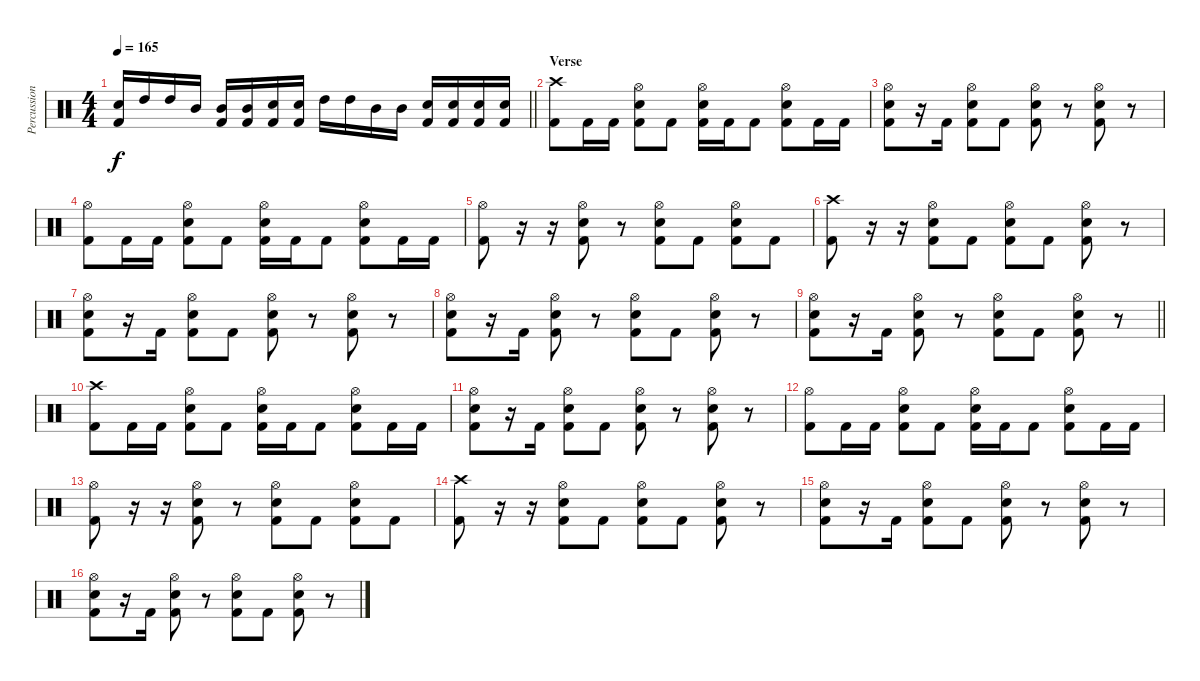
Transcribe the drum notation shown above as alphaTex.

\track ("Percussion" "Percussion") {instrument percussion}
\staff {score}
\articulation defaults
\ts (4 4)
\tempo 165
\clef neutral
\barLineRight lightlight
\ks c
("Snare (hit) 2" "Kick (hit) 2").16{dy f} "High Tom (hit)".16 "High Tom (hit)".16 "Mid Tom (hit)".16 ("Mid Tom (hit)" "Kick (hit) 2").16 ("Mid Tom (hit)" "Kick (hit) 2").16 ("Snare (hit) 2" "Kick (hit) 2").16 ("Snare (hit) 2" "Kick (hit) 2").16 "High Tom (hit)".16 "High Tom (hit)".16 "Mid Tom (hit)".16 "Mid Tom (hit)".16 ("Snare (hit) 2" "Kick (hit) 2").16 ("Snare (hit) 2" "Kick (hit) 2").16 ("Snare (hit) 2" "Kick (hit) 2").16 ("Snare (hit) 2" "Kick (hit) 2").16 |
\section ("" "Verse")
("Kick (hit) 2" "Crash high (hit)").8 "Kick (hit) 2".16 "Kick (hit) 2".16 ("Hi-Hat (open)" "Kick (hit) 2" "Snare (hit) 2").8 "Kick (hit) 2".8 ("Hi-Hat (open)" "Kick (hit) 2" "Snare (hit) 2").16 "Kick (hit) 2".16 "Kick (hit) 2".8 ("Hi-Hat (open)" "Kick (hit) 2" "Snare (hit) 2").8 "Kick (hit) 2".16 "Kick (hit) 2".16 |
("Hi-Hat (open)" "Kick (hit) 2" "Snare (hit) 2").8 r.16 "Kick (hit) 2".16 ("Hi-Hat (open)" "Kick (hit) 2" "Snare (hit) 2").8 "Kick (hit) 2".8 ("Hi-Hat (open)" "Kick (hit) 2" "Snare (hit) 2").8 r.8 ("Hi-Hat (open)" "Kick (hit) 2" "Snare (hit) 2").8 r.8 |
("Kick (hit) 2" "Hi-Hat (open)").8 "Kick (hit) 2".16 "Kick (hit) 2".16 ("Hi-Hat (open)" "Kick (hit) 2" "Snare (hit) 2").8 "Kick (hit) 2".8 ("Hi-Hat (open)" "Kick (hit) 2" "Snare (hit) 2").16 "Kick (hit) 2".16 "Kick (hit) 2".8 ("Hi-Hat (open)" "Kick (hit) 2" "Snare (hit) 2").8 "Kick (hit) 2".16 "Kick (hit) 2".16 |
("Kick (hit) 2" "Hi-Hat (open)").8 r.16 r.16 ("Hi-Hat (open)" "Kick (hit) 2" "Snare (hit) 2").8 r.8 ("Hi-Hat (open)" "Kick (hit) 2" "Snare (hit) 2").8 "Kick (hit) 2".8 ("Hi-Hat (open)" "Kick (hit) 2" "Snare (hit) 2").8 "Kick (hit) 2".8 |
("Kick (hit) 2" "Crash high (hit)").8 r.16 r.16 ("Hi-Hat (open)" "Kick (hit) 2" "Snare (hit) 2").8 "Kick (hit) 2".8 ("Hi-Hat (open)" "Kick (hit) 2" "Snare (hit) 2").8 "Kick (hit) 2".8 ("Hi-Hat (open)" "Kick (hit) 2" "Snare (hit) 2").8 r.8 |
("Hi-Hat (open)" "Kick (hit) 2" "Snare (hit) 2").8 r.16 "Kick (hit) 2".16 ("Hi-Hat (open)" "Kick (hit) 2" "Snare (hit) 2").8 "Kick (hit) 2".8 ("Hi-Hat (open)" "Kick (hit) 2" "Snare (hit) 2").8 r.8 ("Hi-Hat (open)" "Kick (hit) 2" "Snare (hit) 2").8 r.8 |
("Hi-Hat (open)" "Kick (hit) 2" "Snare (hit) 2").8 r.16 "Kick (hit) 2".16 ("Hi-Hat (open)" "Kick (hit) 2" "Snare (hit) 2").8 r.8 ("Hi-Hat (open)" "Kick (hit) 2" "Snare (hit) 2").8 "Kick (hit) 2".8 ("Hi-Hat (open)" "Kick (hit) 2" "Snare (hit) 2").8 r.8 |
\barLineRight lightlight
("Hi-Hat (open)" "Kick (hit) 2" "Snare (hit) 2").8 r.16 "Kick (hit) 2".16 ("Hi-Hat (open)" "Kick (hit) 2" "Snare (hit) 2").8 r.8 ("Hi-Hat (open)" "Kick (hit) 2" "Snare (hit) 2").8 "Kick (hit) 2".8 ("Hi-Hat (open)" "Kick (hit) 2" "Snare (hit) 2").8 r.8 |
("Kick (hit) 2" "Crash high (hit)").8 "Kick (hit) 2".16 "Kick (hit) 2".16 ("Hi-Hat (open)" "Kick (hit) 2" "Snare (hit) 2").8 "Kick (hit) 2".8 ("Hi-Hat (open)" "Kick (hit) 2" "Snare (hit) 2").16 "Kick (hit) 2".16 "Kick (hit) 2".8 ("Hi-Hat (open)" "Kick (hit) 2" "Snare (hit) 2").8 "Kick (hit) 2".16 "Kick (hit) 2".16 |
("Hi-Hat (open)" "Kick (hit) 2" "Snare (hit) 2").8 r.16 "Kick (hit) 2".16 ("Hi-Hat (open)" "Kick (hit) 2" "Snare (hit) 2").8 "Kick (hit) 2".8 ("Hi-Hat (open)" "Kick (hit) 2" "Snare (hit) 2").8 r.8 ("Hi-Hat (open)" "Kick (hit) 2" "Snare (hit) 2").8 r.8 |
("Kick (hit) 2" "Hi-Hat (open)").8 "Kick (hit) 2".16 "Kick (hit) 2".16 ("Hi-Hat (open)" "Kick (hit) 2" "Snare (hit) 2").8 "Kick (hit) 2".8 ("Hi-Hat (open)" "Kick (hit) 2" "Snare (hit) 2").16 "Kick (hit) 2".16 "Kick (hit) 2".8 ("Hi-Hat (open)" "Kick (hit) 2" "Snare (hit) 2").8 "Kick (hit) 2".16 "Kick (hit) 2".16 |
("Kick (hit) 2" "Hi-Hat (open)").8 r.16 r.16 ("Hi-Hat (open)" "Kick (hit) 2" "Snare (hit) 2").8 r.8 ("Hi-Hat (open)" "Kick (hit) 2" "Snare (hit) 2").8 "Kick (hit) 2".8 ("Hi-Hat (open)" "Kick (hit) 2" "Snare (hit) 2").8 "Kick (hit) 2".8 |
("Kick (hit) 2" "Crash high (hit)").8 r.16 r.16 ("Hi-Hat (open)" "Kick (hit) 2" "Snare (hit) 2").8 "Kick (hit) 2".8 ("Hi-Hat (open)" "Kick (hit) 2" "Snare (hit) 2").8 "Kick (hit) 2".8 ("Hi-Hat (open)" "Kick (hit) 2" "Snare (hit) 2").8 r.8 |
("Hi-Hat (open)" "Kick (hit) 2" "Snare (hit) 2").8 r.16 "Kick (hit) 2".16 ("Hi-Hat (open)" "Kick (hit) 2" "Snare (hit) 2").8 "Kick (hit) 2".8 ("Hi-Hat (open)" "Kick (hit) 2" "Snare (hit) 2").8 r.8 ("Hi-Hat (open)" "Kick (hit) 2" "Snare (hit) 2").8 r.8 |
("Hi-Hat (open)" "Kick (hit) 2" "Snare (hit) 2").8 r.16 "Kick (hit) 2".16 ("Hi-Hat (open)" "Kick (hit) 2" "Snare (hit) 2").8 r.8 ("Hi-Hat (open)" "Kick (hit) 2" "Snare (hit) 2").8 "Kick (hit) 2".8 ("Hi-Hat (open)" "Kick (hit) 2" "Snare (hit) 2").8 r.8
